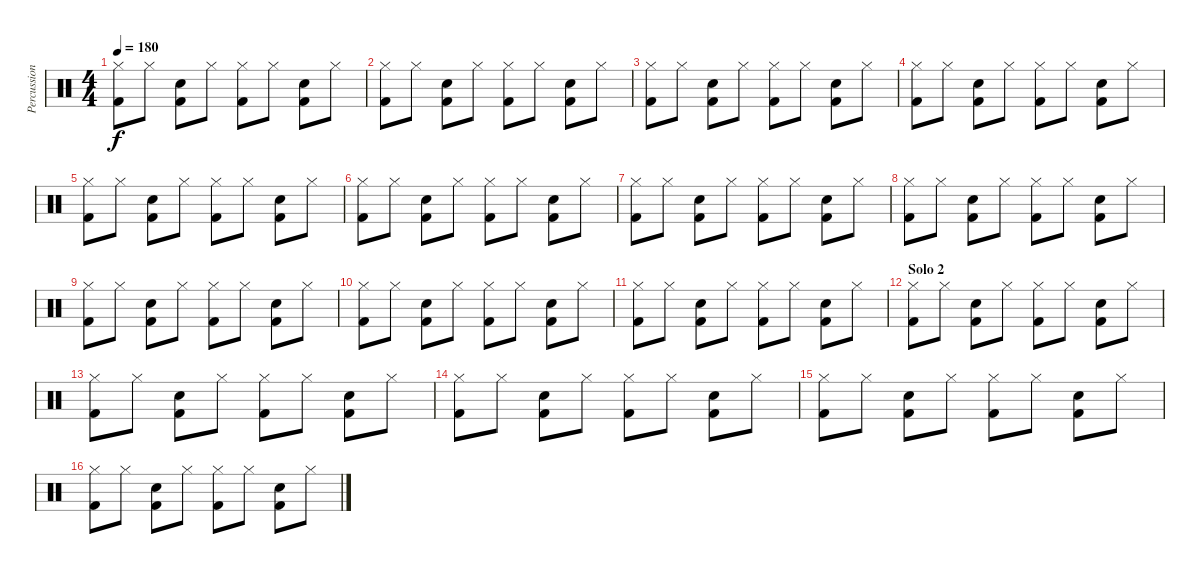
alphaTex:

\track ("Percussion" "Percussion") {instrument percussion}
\staff {score}
\articulation defaults
\ts (4 4)
\tempo 180
\clef neutral
\ks c
("Kick (hit) 2" "Hi-Hat (closed)").8{dy f} "Hi-Hat (closed)".8 ("Kick (hit) 2" "Snare (hit) 2").8 "Hi-Hat (closed)".8 ("Kick (hit) 2" "Hi-Hat (closed)").8 "Hi-Hat (closed)".8 ("Kick (hit) 2" "Electric Snare (hit)").8 "Hi-Hat (closed)".8 |
("Kick (hit) 2" "Hi-Hat (closed)").8 "Hi-Hat (closed)".8 ("Kick (hit) 2" "Snare (hit) 2").8 "Hi-Hat (closed)".8 ("Kick (hit) 2" "Hi-Hat (closed)").8 "Hi-Hat (closed)".8 ("Kick (hit) 2" "Electric Snare (hit)").8 "Hi-Hat (closed)".8 |
("Kick (hit) 2" "Hi-Hat (closed)").8 "Hi-Hat (closed)".8 ("Kick (hit) 2" "Snare (hit) 2").8 "Hi-Hat (closed)".8 ("Kick (hit) 2" "Hi-Hat (closed)").8 "Hi-Hat (closed)".8 ("Kick (hit) 2" "Electric Snare (hit)").8 "Hi-Hat (closed)".8 |
("Kick (hit) 2" "Hi-Hat (closed)").8 "Hi-Hat (closed)".8 ("Kick (hit) 2" "Snare (hit) 2").8 "Hi-Hat (closed)".8 ("Kick (hit) 2" "Hi-Hat (closed)").8 "Hi-Hat (closed)".8 ("Kick (hit) 2" "Electric Snare (hit)").8 "Hi-Hat (closed)".8 |
("Kick (hit) 2" "Hi-Hat (closed)").8 "Hi-Hat (closed)".8 ("Kick (hit) 2" "Snare (hit) 2").8 "Hi-Hat (closed)".8 ("Kick (hit) 2" "Hi-Hat (closed)").8 "Hi-Hat (closed)".8 ("Kick (hit) 2" "Electric Snare (hit)").8 "Hi-Hat (closed)".8 |
("Kick (hit) 2" "Hi-Hat (closed)").8 "Hi-Hat (closed)".8 ("Kick (hit) 2" "Snare (hit) 2").8 "Hi-Hat (closed)".8 ("Kick (hit) 2" "Hi-Hat (closed)").8 "Hi-Hat (closed)".8 ("Kick (hit) 2" "Electric Snare (hit)").8 "Hi-Hat (closed)".8 |
("Kick (hit) 2" "Hi-Hat (closed)").8 "Hi-Hat (closed)".8 ("Kick (hit) 2" "Snare (hit) 2").8 "Hi-Hat (closed)".8 ("Kick (hit) 2" "Hi-Hat (closed)").8 "Hi-Hat (closed)".8 ("Kick (hit) 2" "Electric Snare (hit)").8 "Hi-Hat (closed)".8 |
("Kick (hit) 2" "Hi-Hat (closed)").8 "Hi-Hat (closed)".8 ("Kick (hit) 2" "Snare (hit) 2").8 "Hi-Hat (closed)".8 ("Kick (hit) 2" "Hi-Hat (closed)").8 "Hi-Hat (closed)".8 ("Kick (hit) 2" "Electric Snare (hit)").8 "Hi-Hat (closed)".8 |
("Kick (hit) 2" "Hi-Hat (closed)").8 "Hi-Hat (closed)".8 ("Kick (hit) 2" "Snare (hit) 2").8 "Hi-Hat (closed)".8 ("Kick (hit) 2" "Hi-Hat (closed)").8 "Hi-Hat (closed)".8 ("Kick (hit) 2" "Electric Snare (hit)").8 "Hi-Hat (closed)".8 |
("Kick (hit) 2" "Hi-Hat (closed)").8 "Hi-Hat (closed)".8 ("Kick (hit) 2" "Snare (hit) 2").8 "Hi-Hat (closed)".8 ("Kick (hit) 2" "Hi-Hat (closed)").8 "Hi-Hat (closed)".8 ("Kick (hit) 2" "Electric Snare (hit)").8 "Hi-Hat (closed)".8 |
("Kick (hit) 2" "Hi-Hat (closed)").8 "Hi-Hat (closed)".8 ("Kick (hit) 2" "Snare (hit) 2").8 "Hi-Hat (closed)".8 ("Kick (hit) 2" "Hi-Hat (closed)").8 "Hi-Hat (closed)".8 ("Kick (hit) 2" "Electric Snare (hit)").8 "Hi-Hat (closed)".8 |
\section ("" "Solo 2")
("Kick (hit) 2" "Hi-Hat (closed)").8 "Hi-Hat (closed)".8 ("Kick (hit) 2" "Snare (hit) 2").8 "Hi-Hat (closed)".8 ("Kick (hit) 2" "Hi-Hat (closed)").8 "Hi-Hat (closed)".8 ("Kick (hit) 2" "Electric Snare (hit)").8 "Hi-Hat (closed)".8 |
("Kick (hit) 2" "Hi-Hat (closed)").8 "Hi-Hat (closed)".8 ("Kick (hit) 2" "Snare (hit) 2").8 "Hi-Hat (closed)".8 ("Kick (hit) 2" "Hi-Hat (closed)").8 "Hi-Hat (closed)".8 ("Kick (hit) 2" "Electric Snare (hit)").8 "Hi-Hat (closed)".8 |
("Kick (hit) 2" "Hi-Hat (closed)").8 "Hi-Hat (closed)".8 ("Kick (hit) 2" "Snare (hit) 2").8 "Hi-Hat (closed)".8 ("Kick (hit) 2" "Hi-Hat (closed)").8 "Hi-Hat (closed)".8 ("Kick (hit) 2" "Electric Snare (hit)").8 "Hi-Hat (closed)".8 |
("Kick (hit) 2" "Hi-Hat (closed)").8 "Hi-Hat (closed)".8 ("Kick (hit) 2" "Snare (hit) 2").8 "Hi-Hat (closed)".8 ("Kick (hit) 2" "Hi-Hat (closed)").8 "Hi-Hat (closed)".8 ("Kick (hit) 2" "Electric Snare (hit)").8 "Hi-Hat (closed)".8 |
("Kick (hit) 2" "Hi-Hat (closed)").8 "Hi-Hat (closed)".8 ("Kick (hit) 2" "Snare (hit) 2").8 "Hi-Hat (closed)".8 ("Kick (hit) 2" "Hi-Hat (closed)").8 "Hi-Hat (closed)".8 ("Kick (hit) 2" "Electric Snare (hit)").8 "Hi-Hat (closed)".8
